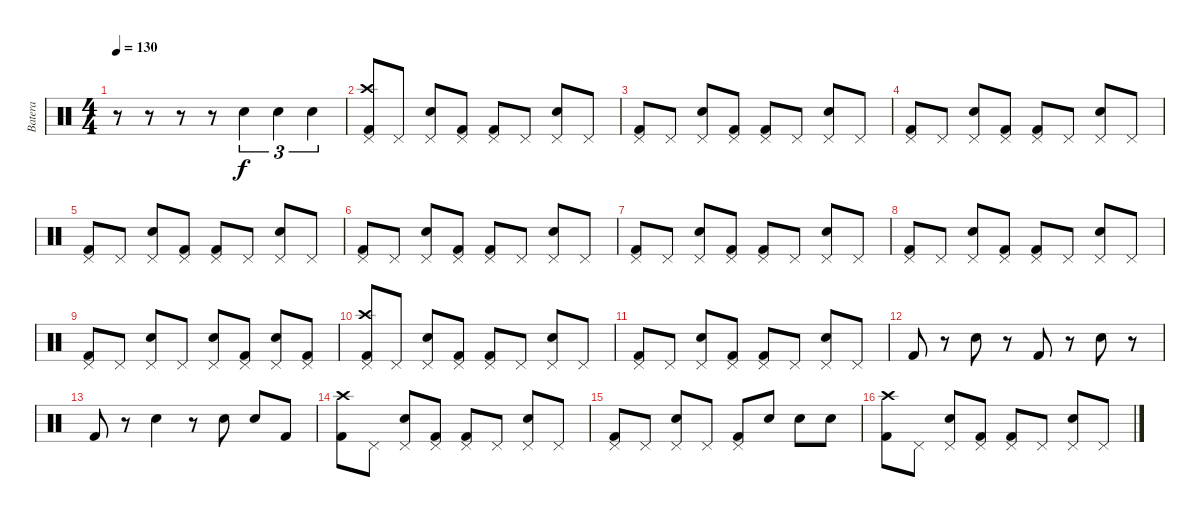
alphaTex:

\track ("Batera" "Batera") {instrument percussion}
\staff {score}
\articulation defaults
\ts (4 4)
\tempo 130
\clef neutral
\ks c
r.8{dy f} r.8 r.8 r.8 "Snare (hit) 2".4{tu (3 2)} "Snare (hit) 2".4{tu (3 2)} "Snare (hit) 2".4{tu (3 2)} |
("Pedal Hi-Hat (hit)" "Crash high (hit)" "Kick (hit) 2").8 "Pedal Hi-Hat (hit)".8 ("Pedal Hi-Hat (hit)" "Snare (hit) 2").8 ("Pedal Hi-Hat (hit)" "Kick (hit) 2").8 ("Pedal Hi-Hat (hit)" "Kick (hit) 2").8 "Pedal Hi-Hat (hit)".8 ("Pedal Hi-Hat (hit)" "Snare (hit) 2").8 "Pedal Hi-Hat (hit)".8 |
("Pedal Hi-Hat (hit)" "Kick (hit) 2").8 "Pedal Hi-Hat (hit)".8 ("Pedal Hi-Hat (hit)" "Snare (hit) 2").8 ("Pedal Hi-Hat (hit)" "Kick (hit) 2").8 ("Pedal Hi-Hat (hit)" "Kick (hit) 2").8 "Pedal Hi-Hat (hit)".8 ("Pedal Hi-Hat (hit)" "Snare (hit) 2").8 "Pedal Hi-Hat (hit)".8 |
("Pedal Hi-Hat (hit)" "Kick (hit) 2").8 "Pedal Hi-Hat (hit)".8 ("Pedal Hi-Hat (hit)" "Snare (hit) 2").8 ("Pedal Hi-Hat (hit)" "Kick (hit) 2").8 ("Pedal Hi-Hat (hit)" "Kick (hit) 2").8 "Pedal Hi-Hat (hit)".8 ("Pedal Hi-Hat (hit)" "Snare (hit) 2").8 "Pedal Hi-Hat (hit)".8 |
("Pedal Hi-Hat (hit)" "Kick (hit) 2").8 "Pedal Hi-Hat (hit)".8 ("Pedal Hi-Hat (hit)" "Snare (hit) 2").8 ("Pedal Hi-Hat (hit)" "Kick (hit) 2").8 ("Pedal Hi-Hat (hit)" "Kick (hit) 2").8 "Pedal Hi-Hat (hit)".8 ("Pedal Hi-Hat (hit)" "Snare (hit) 2").8 "Pedal Hi-Hat (hit)".8 |
("Pedal Hi-Hat (hit)" "Kick (hit) 2").8 "Pedal Hi-Hat (hit)".8 ("Pedal Hi-Hat (hit)" "Snare (hit) 2").8 ("Pedal Hi-Hat (hit)" "Kick (hit) 2").8 ("Pedal Hi-Hat (hit)" "Kick (hit) 2").8 "Pedal Hi-Hat (hit)".8 ("Pedal Hi-Hat (hit)" "Snare (hit) 2").8 "Pedal Hi-Hat (hit)".8 |
("Pedal Hi-Hat (hit)" "Kick (hit) 2").8 "Pedal Hi-Hat (hit)".8 ("Pedal Hi-Hat (hit)" "Snare (hit) 2").8 ("Pedal Hi-Hat (hit)" "Kick (hit) 2").8 ("Pedal Hi-Hat (hit)" "Kick (hit) 2").8 "Pedal Hi-Hat (hit)".8 ("Pedal Hi-Hat (hit)" "Snare (hit) 2").8 "Pedal Hi-Hat (hit)".8 |
("Pedal Hi-Hat (hit)" "Kick (hit) 2").8 "Pedal Hi-Hat (hit)".8 ("Pedal Hi-Hat (hit)" "Snare (hit) 2").8 ("Pedal Hi-Hat (hit)" "Kick (hit) 2").8 ("Pedal Hi-Hat (hit)" "Kick (hit) 2").8 "Pedal Hi-Hat (hit)".8 ("Pedal Hi-Hat (hit)" "Snare (hit) 2").8 "Pedal Hi-Hat (hit)".8 |
("Pedal Hi-Hat (hit)" "Kick (hit) 2").8 "Pedal Hi-Hat (hit)".8 ("Pedal Hi-Hat (hit)" "Snare (hit) 2").8 "Pedal Hi-Hat (hit)".8 ("Pedal Hi-Hat (hit)" "Snare (hit) 2").8 ("Pedal Hi-Hat (hit)" "Kick (hit) 2").8 ("Pedal Hi-Hat (hit)" "Snare (hit) 2").8 ("Pedal Hi-Hat (hit)" "Kick (hit) 2").8 |
("Pedal Hi-Hat (hit)" "Crash high (hit)" "Kick (hit) 2").8 "Pedal Hi-Hat (hit)".8 ("Pedal Hi-Hat (hit)" "Snare (hit) 2").8 ("Pedal Hi-Hat (hit)" "Kick (hit) 2").8 ("Pedal Hi-Hat (hit)" "Kick (hit) 2").8 "Pedal Hi-Hat (hit)".8 ("Pedal Hi-Hat (hit)" "Snare (hit) 2").8 "Pedal Hi-Hat (hit)".8 |
("Pedal Hi-Hat (hit)" "Kick (hit) 2").8 "Pedal Hi-Hat (hit)".8 ("Pedal Hi-Hat (hit)" "Snare (hit) 2").8 ("Pedal Hi-Hat (hit)" "Kick (hit) 2").8 ("Pedal Hi-Hat (hit)" "Kick (hit) 2").8 "Pedal Hi-Hat (hit)".8 ("Pedal Hi-Hat (hit)" "Snare (hit) 2").8 "Pedal Hi-Hat (hit)".8 |
"Kick (hit) 2".8 r.8 "Snare (hit) 2".8 r.8 "Kick (hit) 2".8 r.8 "Snare (hit) 2".8 r.8 |
"Kick (hit) 2".8 r.8 "Snare (hit) 2".4 r.8 "Snare (hit) 2".8 "Snare (hit) 2".8 "Kick (hit) 2".8 |
("Crash high (hit)" "Kick (hit) 2").8 "Pedal Hi-Hat (hit)".8 ("Pedal Hi-Hat (hit)" "Snare (hit) 2").8 ("Pedal Hi-Hat (hit)" "Kick (hit) 2").8 ("Pedal Hi-Hat (hit)" "Kick (hit) 2").8 "Pedal Hi-Hat (hit)".8 ("Pedal Hi-Hat (hit)" "Snare (hit) 2").8 "Pedal Hi-Hat (hit)".8 |
("Pedal Hi-Hat (hit)" "Kick (hit) 2").8 "Pedal Hi-Hat (hit)".8 ("Pedal Hi-Hat (hit)" "Snare (hit) 2").8 "Pedal Hi-Hat (hit)".8 ("Pedal Hi-Hat (hit)" "Kick (hit) 2").8 "Snare (hit) 2".8 "Snare (hit) 2".8 "Snare (hit) 2".8 |
("Crash high (hit)" "Kick (hit) 2").8 "Pedal Hi-Hat (hit)".8 ("Pedal Hi-Hat (hit)" "Snare (hit) 2").8 ("Pedal Hi-Hat (hit)" "Kick (hit) 2").8 ("Pedal Hi-Hat (hit)" "Kick (hit) 2").8 "Pedal Hi-Hat (hit)".8 ("Pedal Hi-Hat (hit)" "Snare (hit) 2").8 "Pedal Hi-Hat (hit)".8
